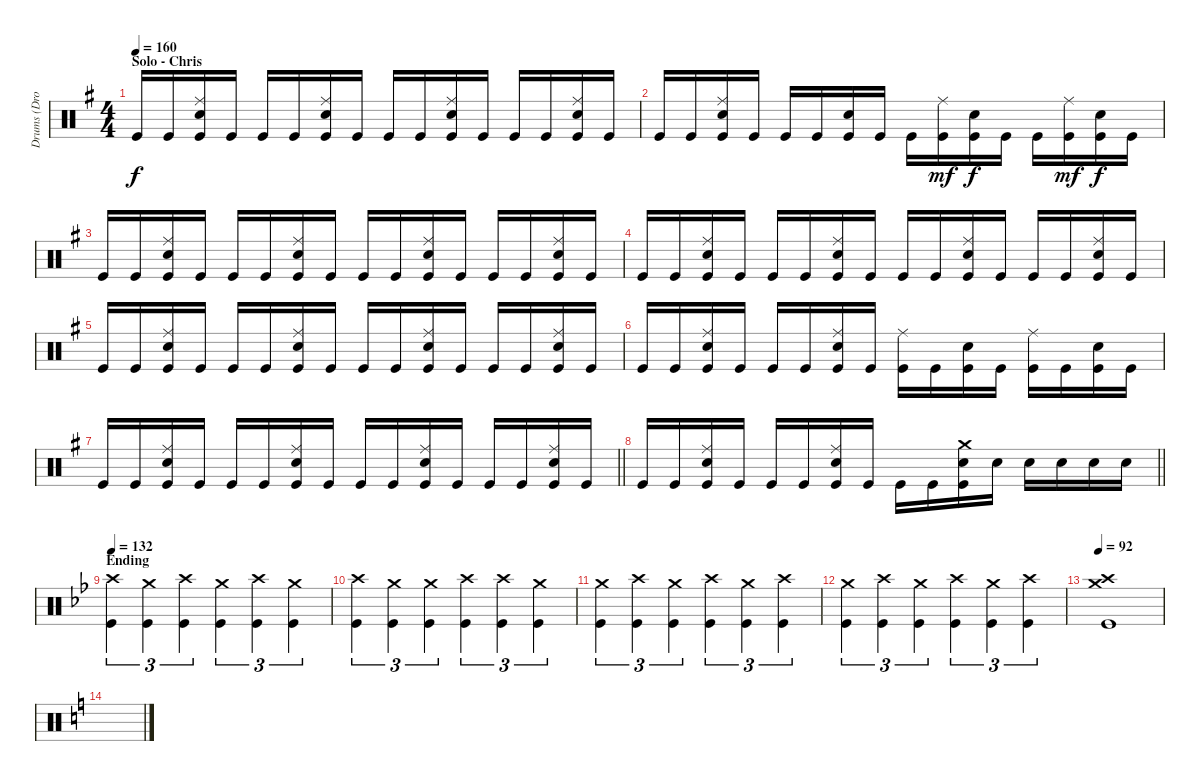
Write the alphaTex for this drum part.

\track ("Drums (Drover)" "Drums (Dro") {instrument percussion}
\staff {score}
\articulation defaults
\ts (4 4)
\section ("" "Solo - Chris")
\tempo 160
\clef neutral
\ks g "Kick (hit)".16{dy f} "Kick (hit)".16
("Ride (middle)" "Snare (hit) 2" "Kick (hit)").16 "Kick (hit)".16 "Kick (hit)".16 "Kick (hit)".16 ("Ride (middle)" "Snare (hit) 2" "Kick (hit)").16 "Kick (hit)".16 "Kick (hit)".16 "Kick (hit)".16 ("Ride (middle)" "Snare (hit) 2" "Kick (hit)").16 "Kick (hit)".16 "Kick (hit)".16 "Kick (hit)".16 ("Ride (middle)" "Snare (hit) 2" "Kick (hit)").16 "Kick (hit)".16 |
"Kick (hit)".16 "Kick (hit)".16 ("Ride (middle)" "Snare (hit) 2" "Kick (hit)").16 "Kick (hit)".16 "Kick (hit)".16 "Kick (hit)".16 ("Snare (hit) 2" "Kick (hit)").16 "Kick (hit)".16 "Kick (hit)".16 ("Ride (middle)" "Kick (hit)").16{dy mf} ("Snare (hit) 2" "Kick (hit)").16{dy f} "Kick (hit)".16 "Kick (hit)".16 ("Ride (middle)" "Kick (hit)").16{dy mf} ("Snare (hit) 2" "Kick (hit)").16{dy f} "Kick (hit)".16 |
"Kick (hit)".16 "Kick (hit)".16 ("Ride (middle)" "Snare (hit) 2" "Kick (hit)").16 "Kick (hit)".16 "Kick (hit)".16 "Kick (hit)".16 ("Ride (middle)" "Snare (hit) 2" "Kick (hit)").16 "Kick (hit)".16 "Kick (hit)".16 "Kick (hit)".16 ("Ride (middle)" "Snare (hit) 2" "Kick (hit)").16 "Kick (hit)".16 "Kick (hit)".16 "Kick (hit)".16 ("Ride (middle)" "Snare (hit) 2" "Kick (hit)").16 "Kick (hit)".16 |
"Kick (hit)".16 "Kick (hit)".16 ("Ride (middle)" "Snare (hit) 2" "Kick (hit)").16 "Kick (hit)".16 "Kick (hit)".16 "Kick (hit)".16 ("Ride (middle)" "Snare (hit) 2" "Kick (hit)").16 "Kick (hit)".16 "Kick (hit)".16 "Kick (hit)".16 ("Ride (middle)" "Snare (hit) 2" "Kick (hit)").16 "Kick (hit)".16 "Kick (hit)".16 "Kick (hit)".16 ("Ride (middle)" "Snare (hit) 2" "Kick (hit)").16 "Kick (hit)".16 |
"Kick (hit)".16 "Kick (hit)".16 ("Ride (middle)" "Snare (hit) 2" "Kick (hit)").16 "Kick (hit)".16 "Kick (hit)".16 "Kick (hit)".16 ("Ride (middle)" "Snare (hit) 2" "Kick (hit)").16 "Kick (hit)".16 "Kick (hit)".16 "Kick (hit)".16 ("Ride (middle)" "Snare (hit) 2" "Kick (hit)").16 "Kick (hit)".16 "Kick (hit)".16 "Kick (hit)".16 ("Ride (middle)" "Snare (hit) 2" "Kick (hit)").16 "Kick (hit)".16 |
"Kick (hit)".16 "Kick (hit)".16 ("Ride (middle)" "Snare (hit) 2" "Kick (hit)").16 "Kick (hit)".16 "Kick (hit)".16 "Kick (hit)".16 ("Ride (middle)" "Snare (hit) 2" "Kick (hit)").16 "Kick (hit)".16 ("Ride (middle)" "Kick (hit)").16 "Kick (hit)".16 ("Snare (hit) 2" "Kick (hit)").16 "Kick (hit)".16 ("Ride (middle)" "Kick (hit)").16 "Kick (hit)".16 ("Snare (hit) 2" "Kick (hit)").16 "Kick (hit)".16 |
\barLineRight lightlight "Kick (hit)".16 "Kick (hit)".16
("Ride (middle)" "Snare (hit) 2" "Kick (hit)").16 "Kick (hit)".16 "Kick (hit)".16 "Kick (hit)".16 ("Ride (middle)" "Snare (hit) 2" "Kick (hit)").16 "Kick (hit)".16 "Kick (hit)".16 "Kick (hit)".16 ("Ride (middle)" "Snare (hit) 2" "Kick (hit)").16 "Kick (hit)".16 "Kick (hit)".16 "Kick (hit)".16 ("Ride (middle)" "Snare (hit) 2" "Kick (hit)").16 "Kick (hit)".16 |
\barLineRight lightlight "Kick (hit)".16 "Kick (hit)".16
("Ride (middle)" "Snare (hit) 2" "Kick (hit)").16 "Kick (hit)".16 "Kick (hit)".16 "Kick (hit)".16 ("Ride (middle)" "Snare (hit) 2" "Kick (hit)").16 "Kick (hit)".16 "Kick (hit)".16 "Kick (hit)".16 ("Crash medium (hit)" "Snare (hit) 2" "Kick (hit)").16 "Snare (hit) 2".16 "Snare (hit) 2".16 "Snare (hit) 2".16 "Snare (hit) 2".16 "Snare (hit) 2".16 |
\section ("" "Ending")
\tempo 132
\ks bb
("Crash high (hit)" "Kick (hit)").4{tu (3 2)} ("Crash medium (hit)" "Kick (hit)").4{tu (3 2)} ("Crash high (hit)" "Kick (hit)").4{tu (3 2)} ("Crash medium (hit)" "Kick (hit)").4{tu (3 2)} ("Crash high (hit)" "Kick (hit)").4{tu (3 2)} ("Crash medium (hit)" "Kick (hit)").4{tu (3 2)} |
("Crash high (hit)" "Kick (hit)").4{tu (3 2)} ("Crash medium (hit)" "Kick (hit)").4{tu (3 2)} ("Crash medium (hit)" "Kick (hit)").4{tu (3 2)} ("Crash high (hit)" "Kick (hit)").4{tu (3 2)} ("Crash high (hit)" "Kick (hit)").4{tu (3 2)} ("Crash medium (hit)" "Kick (hit)").4{tu (3 2)} |
("Crash medium (hit)" "Kick (hit)").4{tu (3 2)} ("Crash high (hit)" "Kick (hit)").4{tu (3 2)} ("Crash medium (hit)" "Kick (hit)").4{tu (3 2)} ("Crash high (hit)" "Kick (hit)").4{tu (3 2)} ("Crash medium (hit)" "Kick (hit)").4{tu (3 2)} ("Crash high (hit)" "Kick (hit)").4{tu (3 2)} |
("Crash medium (hit)" "Kick (hit)").4{tu (3 2)} ("Crash high (hit)" "Kick (hit)").4{tu (3 2)} ("Crash medium (hit)" "Kick (hit)").4{tu (3 2)} ("Crash high (hit)" "Kick (hit)").4{tu (3 2)} ("Crash medium (hit)" "Kick (hit)").4{tu (3 2)} ("Crash high (hit)" "Kick (hit)").4{tu (3 2)} |
\tempo 92
("Crash high (hit)" "Crash medium (hit)" "Kick (hit)").1 |
\ks c
